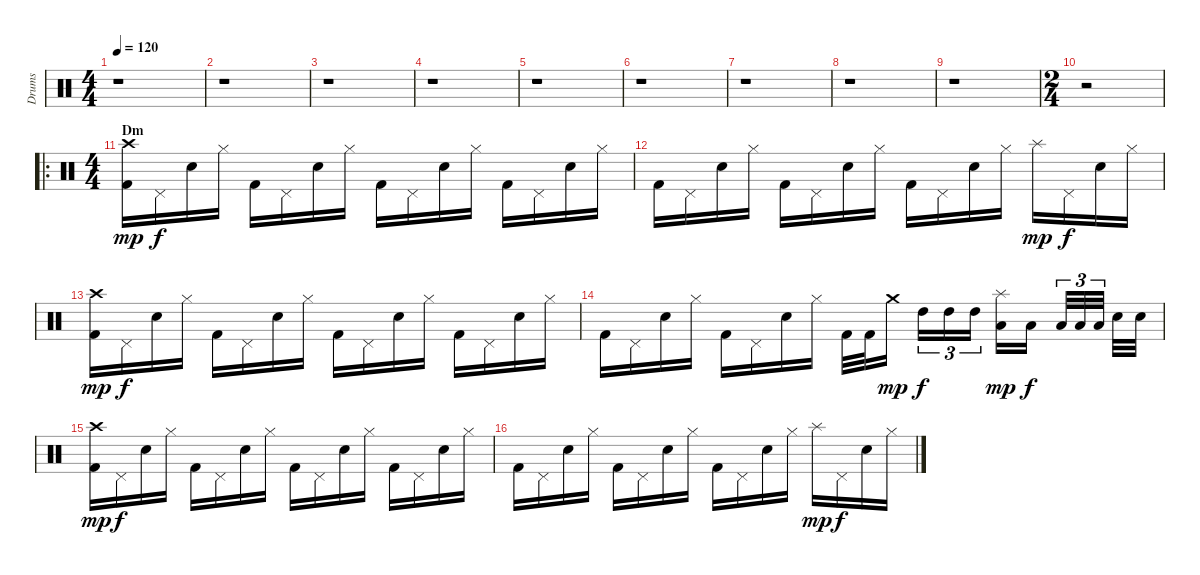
\track ("Drums" "Drums") {instrument percussion}
\staff {score}
\articulation defaults
\ts (4 4)
\tempo 120
\clef neutral
\ks c
r.1{dy mp} |
r.1 |
r.1 |
r.1 |
r.1 |
r.1 |
r.1 |
r.1 |
r.1 |
\ts (2 4)
r.2 |
\ro
\ts (4 4)
\section ("" "Dm")
("Kick (hit) 2" "Crash high (hit)").16 "Pedal Hi-Hat (hit)".16{dy f} "Electric Snare (hit)".16 "Hi-Hat (closed)".16 "Kick (hit) 2".16 "Pedal Hi-Hat (hit)".16 "Electric Snare (hit)".16 "Hi-Hat (closed)".16 "Kick (hit) 2".16 "Pedal Hi-Hat (hit)".16 "Electric Snare (hit)".16 "Hi-Hat (closed)".16 "Kick (hit) 2".16 "Pedal Hi-Hat (hit)".16 "Electric Snare (hit)".16 "Hi-Hat (closed)".16 |
"Kick (hit) 2".16 "Pedal Hi-Hat (hit)".16 "Electric Snare (hit)".16 "Hi-Hat (closed)".16 "Kick (hit) 2".16 "Pedal Hi-Hat (hit)".16 "Electric Snare (hit)".16 "Hi-Hat (closed)".16 "Kick (hit) 2".16 "Pedal Hi-Hat (hit)".16 "Electric Snare (hit)".16 "Hi-Hat (closed)".16 "Splash (hit)".16{dy mp} "Pedal Hi-Hat (hit)".16{dy f} "Electric Snare (hit)".16 "Hi-Hat (closed)".16 |
("Kick (hit) 2" "Crash high (hit)").16{dy mp} "Pedal Hi-Hat (hit)".16{dy f} "Electric Snare (hit)".16 "Hi-Hat (closed)".16 "Kick (hit) 2".16 "Pedal Hi-Hat (hit)".16 "Electric Snare (hit)".16 "Hi-Hat (closed)".16 "Kick (hit) 2".16 "Pedal Hi-Hat (hit)".16 "Electric Snare (hit)".16 "Hi-Hat (closed)".16 "Kick (hit) 2".16 "Pedal Hi-Hat (hit)".16 "Electric Snare (hit)".16 "Hi-Hat (closed)".16 |
"Kick (hit) 2".16 "Pedal Hi-Hat (hit)".16 "Electric Snare (hit)".16 "Hi-Hat (closed)".16 "Kick (hit) 2".16 "Pedal Hi-Hat (hit)".16 "Electric Snare (hit)".16 "Hi-Hat (closed)".16 "Kick (hit) 2".32 "Kick (hit) 2".32 "Crash medium (hit)".16{dy mp} "High Tom (hit)".16{tu (3 2) dy f} "High Tom (hit)".16{tu (3 2)} "High Tom (hit)".16{tu (3 2)} ("Low Tom (hit)" "Splash (hit)").16{dy mp} "Low Tom (hit)".16{dy f} "Low Floor Tom (hit)".32{tu (3 2)} "Low Floor Tom (hit)".32{tu (3 2)} "Low Floor Tom (hit)".32{tu (3 2)} "Electric Snare (hit)".32 "Electric Snare (hit)".32 |
("Kick (hit) 2" "Crash high (hit)").16{dy mp} "Pedal Hi-Hat (hit)".16{dy f} "Electric Snare (hit)".16 "Hi-Hat (closed)".16 "Kick (hit) 2".16 "Pedal Hi-Hat (hit)".16 "Electric Snare (hit)".16 "Hi-Hat (closed)".16 "Kick (hit) 2".16 "Pedal Hi-Hat (hit)".16 "Electric Snare (hit)".16 "Hi-Hat (closed)".16 "Kick (hit) 2".16 "Pedal Hi-Hat (hit)".16 "Electric Snare (hit)".16 "Hi-Hat (closed)".16 |
"Kick (hit) 2".16 "Pedal Hi-Hat (hit)".16 "Electric Snare (hit)".16 "Hi-Hat (closed)".16 "Kick (hit) 2".16 "Pedal Hi-Hat (hit)".16 "Electric Snare (hit)".16 "Hi-Hat (closed)".16 "Kick (hit) 2".16 "Pedal Hi-Hat (hit)".16 "Electric Snare (hit)".16 "Hi-Hat (closed)".16 "Splash (hit)".16{dy mp} "Pedal Hi-Hat (hit)".16{dy f} "Electric Snare (hit)".16 "Hi-Hat (closed)".16
